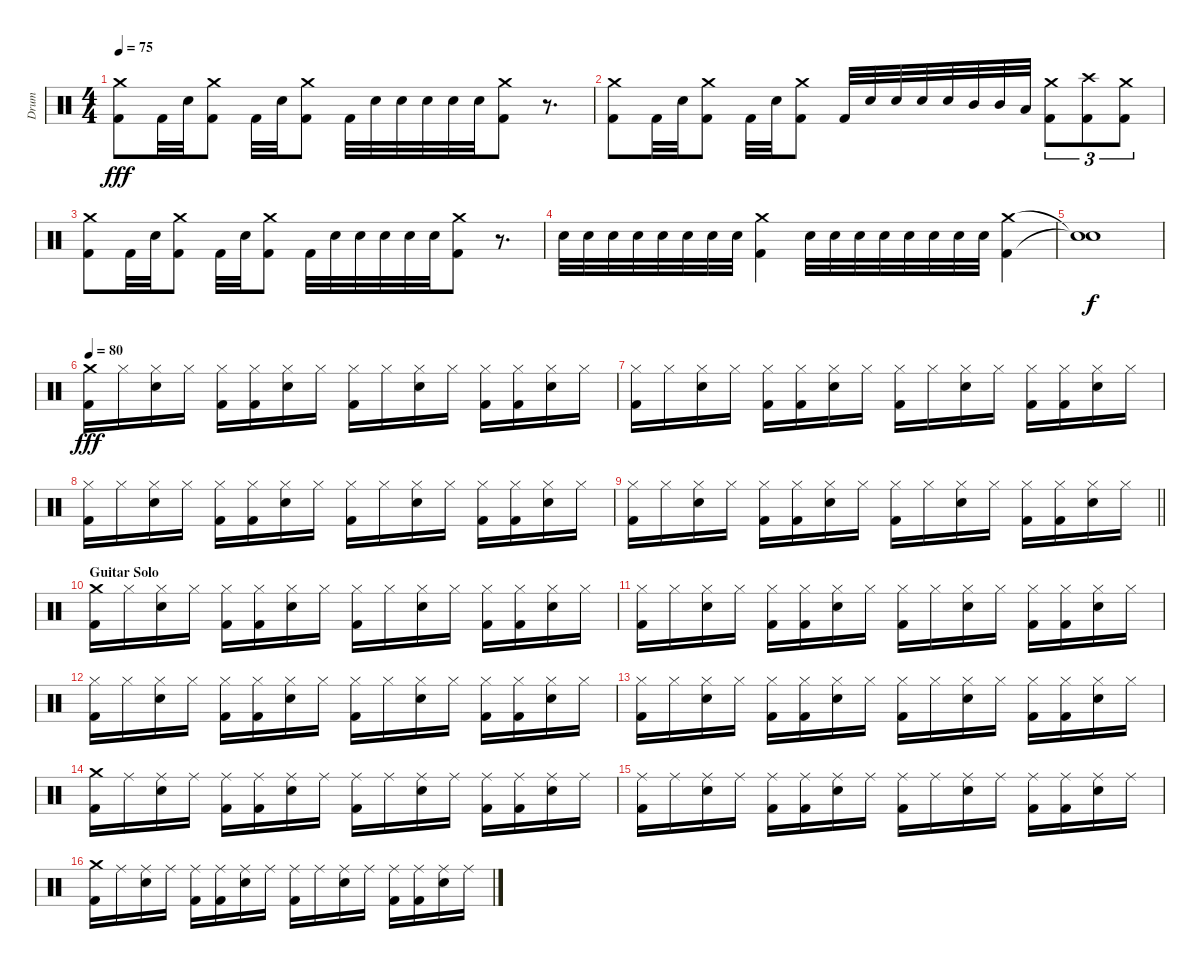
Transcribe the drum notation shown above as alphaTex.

\track ("Drum" "Drum") {instrument percussion}
\staff {score}
\articulation defaults
\ts (4 4)
\tempo 75
\clef neutral
\ks c
("Crash medium (hit)" "Kick (hit) 2").8{dy fff} "Kick (hit) 2".32 "Snare (hit) 2".32 ("Crash medium (hit)" "Kick (hit) 2").8 "Kick (hit) 2".32 "Snare (hit) 2".32 ("Crash medium (hit)" "Kick (hit) 2").8 "Kick (hit) 2".32 "Snare (hit) 2".32 "Snare (hit) 2".32 "Snare (hit) 2".32 "Snare (hit) 2".32 "Snare (hit) 2".32 ("Crash medium (hit)" "Kick (hit) 2").8 r.8{d} |
("Crash medium (hit)" "Kick (hit) 2").8 "Kick (hit) 2".32 "Snare (hit) 2".32 ("Crash medium (hit)" "Kick (hit) 2").8 "Kick (hit) 2".32 "Snare (hit) 2".32 ("Crash medium (hit)" "Kick (hit) 2").8 "Kick (hit) 2".32 "Snare (hit) 2".32 "Snare (hit) 2".32 "Snare (hit) 2".32 "Snare (hit) 2".32 "Mid Tom (hit)".32 "Mid Tom (hit)".32 "Low Tom (hit)".32 ("Crash medium (hit)" "Kick (hit) 2").8{tu (3 2)} ("Crash high (hit)" "Kick (hit) 2").8{tu (3 2)} ("Crash medium (hit)" "Kick (hit) 2").8{tu (3 2)} |
("Crash medium (hit)" "Kick (hit) 2").8 "Kick (hit) 2".32 "Snare (hit) 2".32 ("Crash medium (hit)" "Kick (hit) 2").8 "Kick (hit) 2".32 "Snare (hit) 2".32 ("Crash medium (hit)" "Kick (hit) 2").8 "Kick (hit) 2".32 "Snare (hit) 2".32 "Snare (hit) 2".32 "Snare (hit) 2".32 "Snare (hit) 2".32 "Snare (hit) 2".32 ("Crash medium (hit)" "Kick (hit) 2").8 r.8{d} |
"Snare (hit) 2".32 "Snare (hit) 2".32 "Snare (hit) 2".32 "Snare (hit) 2".32 "Snare (hit) 2".32 "Snare (hit) 2".32 "Snare (hit) 2".32 "Snare (hit) 2".32 ("Crash medium (hit)" "Kick (hit) 2").4 "Snare (hit) 2".32 "Snare (hit) 2".32 "Snare (hit) 2".32 "Snare (hit) 2".32 "Snare (hit) 2".32 "Snare (hit) 2".32 "Snare (hit) 2".32 "Snare (hit) 2".32 ("Crash medium (hit)" "Kick (hit) 2").4 |
("Snare (hit)"{t} "Snare (hit)"{t}).1{dy f} |
\tempo 80
("Crash medium (hit)" "Kick (hit) 2").16{dy fff} "Hi-Hat (closed)".16 ("Hi-Hat (closed)" "Snare (hit) 2").16 "Hi-Hat (closed)".16 ("Hi-Hat (closed)" "Kick (hit) 2").16 ("Hi-Hat (closed)" "Kick (hit) 2").16 ("Hi-Hat (closed)" "Snare (hit) 2").16 "Hi-Hat (closed)".16 ("Hi-Hat (closed)" "Kick (hit) 2").16 "Hi-Hat (closed)".16 ("Hi-Hat (closed)" "Snare (hit) 2").16 "Hi-Hat (closed)".16 ("Hi-Hat (closed)" "Kick (hit) 2").16 ("Hi-Hat (closed)" "Kick (hit) 2").16 ("Hi-Hat (closed)" "Snare (hit) 2").16 "Hi-Hat (closed)".16 |
("Hi-Hat (closed)" "Kick (hit) 2").16 "Hi-Hat (closed)".16 ("Hi-Hat (closed)" "Snare (hit) 2").16 "Hi-Hat (closed)".16 ("Hi-Hat (closed)" "Kick (hit) 2").16 ("Hi-Hat (closed)" "Kick (hit) 2").16 ("Hi-Hat (closed)" "Snare (hit) 2").16 "Hi-Hat (closed)".16 ("Hi-Hat (closed)" "Kick (hit) 2").16 "Hi-Hat (closed)".16 ("Hi-Hat (closed)" "Snare (hit) 2").16 "Hi-Hat (closed)".16 ("Hi-Hat (closed)" "Kick (hit) 2").16 ("Hi-Hat (closed)" "Kick (hit) 2").16 ("Hi-Hat (closed)" "Snare (hit) 2").16 "Hi-Hat (closed)".16 |
("Hi-Hat (closed)" "Kick (hit) 2").16 "Hi-Hat (closed)".16 ("Hi-Hat (closed)" "Snare (hit) 2").16 "Hi-Hat (closed)".16 ("Hi-Hat (closed)" "Kick (hit) 2").16 ("Hi-Hat (closed)" "Kick (hit) 2").16 ("Hi-Hat (closed)" "Snare (hit) 2").16 "Hi-Hat (closed)".16 ("Hi-Hat (closed)" "Kick (hit) 2").16 "Hi-Hat (closed)".16 ("Hi-Hat (closed)" "Snare (hit) 2").16 "Hi-Hat (closed)".16 ("Hi-Hat (closed)" "Kick (hit) 2").16 ("Hi-Hat (closed)" "Kick (hit) 2").16 ("Hi-Hat (closed)" "Snare (hit) 2").16 "Hi-Hat (closed)".16 |
\barLineRight lightlight
("Hi-Hat (closed)" "Kick (hit) 2").16 "Hi-Hat (closed)".16 ("Hi-Hat (closed)" "Snare (hit) 2").16 "Hi-Hat (closed)".16 ("Hi-Hat (closed)" "Kick (hit) 2").16 ("Hi-Hat (closed)" "Kick (hit) 2").16 ("Hi-Hat (closed)" "Snare (hit) 2").16 "Hi-Hat (closed)".16 ("Hi-Hat (closed)" "Kick (hit) 2").16 "Hi-Hat (closed)".16 ("Hi-Hat (closed)" "Snare (hit) 2").16 "Hi-Hat (closed)".16 ("Hi-Hat (closed)" "Kick (hit) 2").16 ("Hi-Hat (closed)" "Kick (hit) 2").16 ("Hi-Hat (closed)" "Snare (hit) 2").16 "Hi-Hat (closed)".16 |
\section ("" "Guitar Solo")
("Crash medium (hit)" "Kick (hit) 2").16 "Hi-Hat (closed)".16 ("Hi-Hat (closed)" "Snare (hit) 2").16 "Hi-Hat (closed)".16 ("Hi-Hat (closed)" "Kick (hit) 2").16 ("Hi-Hat (closed)" "Kick (hit) 2").16 ("Hi-Hat (closed)" "Snare (hit) 2").16 "Hi-Hat (closed)".16 ("Hi-Hat (closed)" "Kick (hit) 2").16 "Hi-Hat (closed)".16 ("Hi-Hat (closed)" "Snare (hit) 2").16 "Hi-Hat (closed)".16 ("Hi-Hat (closed)" "Kick (hit) 2").16 ("Hi-Hat (closed)" "Kick (hit) 2").16 ("Hi-Hat (closed)" "Snare (hit) 2").16 "Hi-Hat (closed)".16 |
("Hi-Hat (closed)" "Kick (hit) 2").16 "Hi-Hat (closed)".16 ("Hi-Hat (closed)" "Snare (hit) 2").16 "Hi-Hat (closed)".16 ("Hi-Hat (closed)" "Kick (hit) 2").16 ("Hi-Hat (closed)" "Kick (hit) 2").16 ("Hi-Hat (closed)" "Snare (hit) 2").16 "Hi-Hat (closed)".16 ("Hi-Hat (closed)" "Kick (hit) 2").16 "Hi-Hat (closed)".16 ("Hi-Hat (closed)" "Snare (hit) 2").16 "Hi-Hat (closed)".16 ("Hi-Hat (closed)" "Kick (hit) 2").16 ("Hi-Hat (closed)" "Kick (hit) 2").16 ("Hi-Hat (closed)" "Snare (hit) 2").16 "Hi-Hat (closed)".16 |
("Hi-Hat (closed)" "Kick (hit) 2").16 "Hi-Hat (closed)".16 ("Hi-Hat (closed)" "Snare (hit) 2").16 "Hi-Hat (closed)".16 ("Hi-Hat (closed)" "Kick (hit) 2").16 ("Hi-Hat (closed)" "Kick (hit) 2").16 ("Hi-Hat (closed)" "Snare (hit) 2").16 "Hi-Hat (closed)".16 ("Hi-Hat (closed)" "Kick (hit) 2").16 "Hi-Hat (closed)".16 ("Hi-Hat (closed)" "Snare (hit) 2").16 "Hi-Hat (closed)".16 ("Hi-Hat (closed)" "Kick (hit) 2").16 ("Hi-Hat (closed)" "Kick (hit) 2").16 ("Hi-Hat (closed)" "Snare (hit) 2").16 "Hi-Hat (closed)".16 |
("Hi-Hat (closed)" "Kick (hit) 2").16 "Hi-Hat (closed)".16 ("Hi-Hat (closed)" "Snare (hit) 2").16 "Hi-Hat (closed)".16 ("Hi-Hat (closed)" "Kick (hit) 2").16 ("Hi-Hat (closed)" "Kick (hit) 2").16 ("Hi-Hat (closed)" "Snare (hit) 2").16 "Hi-Hat (closed)".16 ("Hi-Hat (closed)" "Kick (hit) 2").16 "Hi-Hat (closed)".16 ("Hi-Hat (closed)" "Snare (hit) 2").16 "Hi-Hat (closed)".16 ("Hi-Hat (closed)" "Kick (hit) 2").16 ("Hi-Hat (closed)" "Kick (hit) 2").16 ("Hi-Hat (closed)" "Snare (hit) 2").16 "Hi-Hat (closed)".16 |
("Crash medium (hit)" "Kick (hit) 2").16 "Ride (middle)".16 ("Ride (middle)" "Snare (hit) 2").16 "Ride (middle)".16 ("Ride (middle)" "Kick (hit) 2").16 ("Ride (middle)" "Kick (hit) 2").16 ("Ride (middle)" "Snare (hit) 2").16 "Ride (middle)".16 ("Ride (middle)" "Kick (hit) 2").16 "Ride (middle)".16 ("Ride (middle)" "Snare (hit) 2").16 "Ride (middle)".16 ("Ride (middle)" "Kick (hit) 2").16 ("Ride (middle)" "Kick (hit) 2").16 ("Ride (middle)" "Snare (hit) 2").16 "Ride (middle)".16 |
("Ride (middle)" "Kick (hit) 2").16 "Ride (middle)".16 ("Ride (middle)" "Snare (hit) 2").16 "Ride (middle)".16 ("Ride (middle)" "Kick (hit) 2").16 ("Ride (middle)" "Kick (hit) 2").16 ("Ride (middle)" "Snare (hit) 2").16 "Ride (middle)".16 ("Ride (middle)" "Kick (hit) 2").16 "Ride (middle)".16 ("Ride (middle)" "Snare (hit) 2").16 "Ride (middle)".16 ("Ride (middle)" "Kick (hit) 2").16 ("Ride (middle)" "Kick (hit) 2").16 ("Ride (middle)" "Snare (hit) 2").16 "Ride (middle)".16 |
("Crash medium (hit)" "Kick (hit) 2").16 "Ride (middle)".16 ("Ride (middle)" "Snare (hit) 2").16 "Ride (middle)".16 ("Ride (middle)" "Kick (hit) 2").16 ("Ride (middle)" "Kick (hit) 2").16 ("Ride (middle)" "Snare (hit) 2").16 "Ride (middle)".16 ("Ride (middle)" "Kick (hit) 2").16 "Ride (middle)".16 ("Ride (middle)" "Snare (hit) 2").16 "Ride (middle)".16 ("Ride (middle)" "Kick (hit) 2").16 ("Ride (middle)" "Kick (hit) 2").16 ("Ride (middle)" "Snare (hit) 2").16 "Ride (middle)".16
